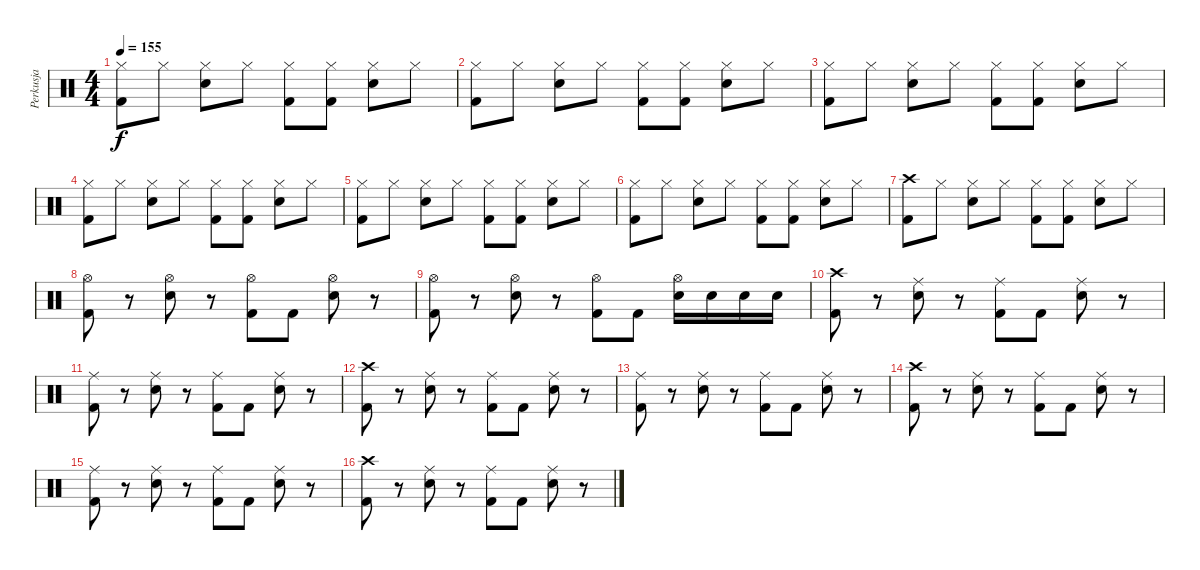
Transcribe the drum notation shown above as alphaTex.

\track ("Perkusja" "Perkusja") {instrument percussion}
\staff {score}
\articulation defaults
\ts (4 4)
\tempo 155
\clef neutral
\ks c
("Hi-Hat (closed)" "Kick (hit) 2").8{dy f} "Hi-Hat (closed)".8 ("Hi-Hat (closed)" "Electric Snare (hit)").8 "Hi-Hat (closed)".8 ("Hi-Hat (closed)" "Kick (hit) 2").8 ("Hi-Hat (closed)" "Kick (hit) 2").8 ("Hi-Hat (closed)" "Electric Snare (hit)").8 "Hi-Hat (closed)".8 |
("Hi-Hat (closed)" "Kick (hit) 2").8 "Hi-Hat (closed)".8 ("Hi-Hat (closed)" "Electric Snare (hit)").8 "Hi-Hat (closed)".8 ("Hi-Hat (closed)" "Kick (hit) 2").8 ("Hi-Hat (closed)" "Kick (hit) 2").8 ("Hi-Hat (closed)" "Electric Snare (hit)").8 "Hi-Hat (closed)".8 |
("Hi-Hat (closed)" "Kick (hit) 2").8 "Hi-Hat (closed)".8 ("Hi-Hat (closed)" "Electric Snare (hit)").8 "Hi-Hat (closed)".8 ("Hi-Hat (closed)" "Kick (hit) 2").8 ("Hi-Hat (closed)" "Kick (hit) 2").8 ("Hi-Hat (closed)" "Electric Snare (hit)").8 "Hi-Hat (closed)".8 |
("Hi-Hat (closed)" "Kick (hit) 2").8 "Hi-Hat (closed)".8 ("Hi-Hat (closed)" "Electric Snare (hit)").8 "Hi-Hat (closed)".8 ("Hi-Hat (closed)" "Kick (hit) 2").8 ("Hi-Hat (closed)" "Kick (hit) 2").8 ("Hi-Hat (closed)" "Electric Snare (hit)").8 "Hi-Hat (closed)".8 |
("Hi-Hat (closed)" "Kick (hit) 2").8 "Hi-Hat (closed)".8 ("Hi-Hat (closed)" "Electric Snare (hit)").8 "Hi-Hat (closed)".8 ("Hi-Hat (closed)" "Kick (hit) 2").8 ("Hi-Hat (closed)" "Kick (hit) 2").8 ("Hi-Hat (closed)" "Electric Snare (hit)").8 "Hi-Hat (closed)".8 |
("Hi-Hat (closed)" "Kick (hit) 2").8 "Hi-Hat (closed)".8 ("Hi-Hat (closed)" "Electric Snare (hit)").8 "Hi-Hat (closed)".8 ("Hi-Hat (closed)" "Kick (hit) 2").8 ("Hi-Hat (closed)" "Kick (hit) 2").8 ("Hi-Hat (closed)" "Electric Snare (hit)").8 "Hi-Hat (closed)".8 |
("Crash high (hit)" "Kick (hit) 2").8 "Hi-Hat (closed)".8 ("Hi-Hat (closed)" "Electric Snare (hit)").8 "Hi-Hat (closed)".8 ("Hi-Hat (closed)" "Kick (hit) 2").8 ("Hi-Hat (closed)" "Kick (hit) 2").8 ("Hi-Hat (closed)" "Electric Snare (hit)").8 "Hi-Hat (closed)".8 |
("Hi-Hat (open)" "Kick (hit) 2").8 r.8 ("Hi-Hat (open)" "Electric Snare (hit)").8 r.8 ("Hi-Hat (open)" "Kick (hit) 2").8 "Kick (hit) 2".8 ("Hi-Hat (open)" "Electric Snare (hit)").8 r.8 |
("Hi-Hat (open)" "Kick (hit) 2").8 r.8 ("Hi-Hat (open)" "Electric Snare (hit)").8 r.8 ("Hi-Hat (open)" "Kick (hit) 2").8 "Kick (hit) 2".8 ("Hi-Hat (open)" "Electric Snare (hit)").16 "Electric Snare (hit)".16 "Electric Snare (hit)".16 "Electric Snare (hit)".16 |
("Crash high (hit)" "Kick (hit) 2").8 r.8 ("Ride (middle)" "Electric Snare (hit)").8 r.8 ("Ride (middle)" "Kick (hit) 2").8 "Kick (hit) 2".8 ("Ride (middle)" "Electric Snare (hit)").8 r.8 |
("Ride (middle)" "Kick (hit) 2").8 r.8 ("Ride (middle)" "Electric Snare (hit)").8 r.8 ("Ride (middle)" "Kick (hit) 2").8 "Kick (hit) 2".8 ("Ride (middle)" "Electric Snare (hit)").8 r.8 |
("Crash high (hit)" "Kick (hit) 2").8 r.8 ("Ride (middle)" "Electric Snare (hit)").8 r.8 ("Ride (middle)" "Kick (hit) 2").8 "Kick (hit) 2".8 ("Ride (middle)" "Electric Snare (hit)").8 r.8 |
("Ride (middle)" "Kick (hit) 2").8 r.8 ("Ride (middle)" "Electric Snare (hit)").8 r.8 ("Ride (middle)" "Kick (hit) 2").8 "Kick (hit) 2".8 ("Ride (middle)" "Electric Snare (hit)").8 r.8 |
("Crash high (hit)" "Kick (hit) 2").8 r.8 ("Ride (middle)" "Electric Snare (hit)").8 r.8 ("Ride (middle)" "Kick (hit) 2").8 "Kick (hit) 2".8 ("Ride (middle)" "Electric Snare (hit)").8 r.8 |
("Ride (middle)" "Kick (hit) 2").8 r.8 ("Ride (middle)" "Electric Snare (hit)").8 r.8 ("Ride (middle)" "Kick (hit) 2").8 "Kick (hit) 2".8 ("Ride (middle)" "Electric Snare (hit)").8 r.8 |
("Crash high (hit)" "Kick (hit) 2").8 r.8 ("Ride (middle)" "Electric Snare (hit)").8 r.8 ("Ride (middle)" "Kick (hit) 2").8 "Kick (hit) 2".8 ("Ride (middle)" "Electric Snare (hit)").8 r.8
